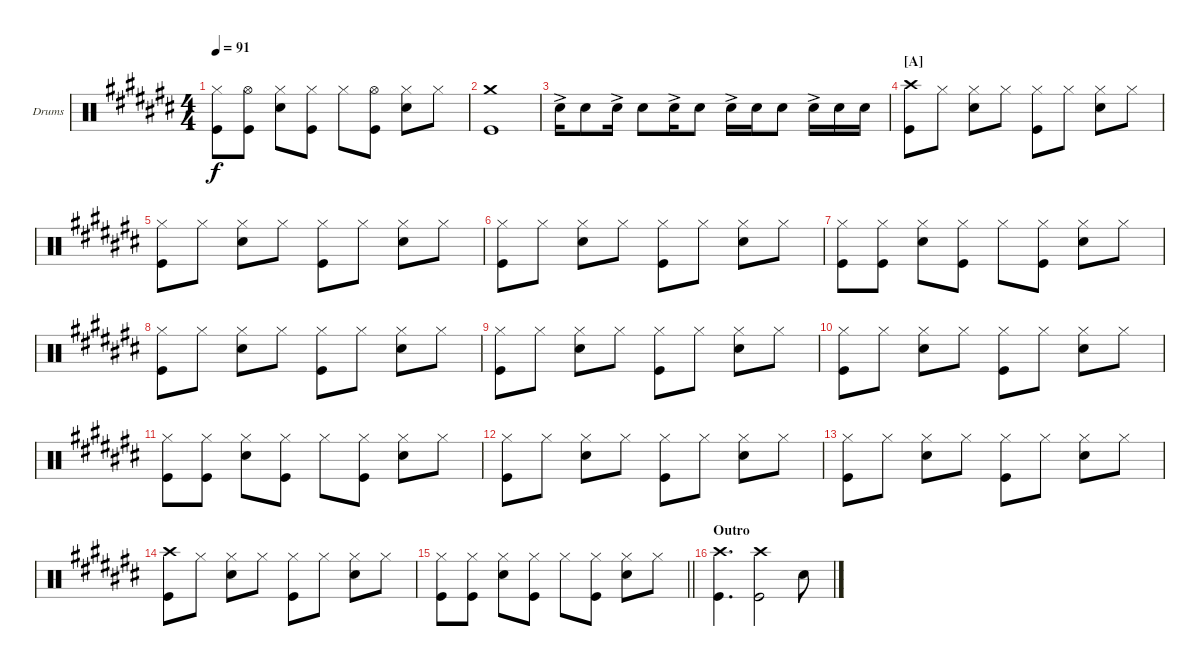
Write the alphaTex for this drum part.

\bracketExtendMode groupsimilarinstruments
\firstSystemTrackNameOrientation horizontal
\otherSystemsTrackNameOrientation horizontal
\track ("Fabrizio Moretti" "Drums") {instrument percussion}
\staff {score}
\articulation defaults
\ts (4 4)
\tempo 91
\clef neutral
\ks c#
("Hi-Hat (closed)" "Kick (hit)").8{dy f} ("Hi-Hat (open)" "Kick (hit)").8 ("Snare (hit) 2" "Hi-Hat (closed)").8 ("Hi-Hat (closed)" "Kick (hit)").8 "Hi-Hat (closed)".8 ("Hi-Hat (open)" "Kick (hit)").8 ("Snare (hit) 2" "Hi-Hat (closed)").8 "Hi-Hat (closed)".8 |
("Crash medium (hit)" "Kick (hit)").1 |
"Snare (hit) 2"{ac}.16 "Snare (hit) 2".8 "Snare (hit) 2"{ac}.16 "Snare (hit) 2".8 "Snare (hit) 2"{ac}.16 "Snare (hit) 2".8 "Snare (hit) 2"{ac}.16 "Snare (hit) 2".16 "Snare (hit) 2".8 "Snare (hit) 2"{ac}.16 "Snare (hit) 2".16 "Snare (hit) 2".16 |
\section ("A" "")
("Crash high (hit)" "Kick (hit)").8 "Hi-Hat (closed)".8 ("Hi-Hat (closed)" "Snare (hit) 2").8 "Hi-Hat (closed)".8 ("Hi-Hat (closed)" "Kick (hit)").8 "Hi-Hat (closed)".8 ("Hi-Hat (closed)" "Snare (hit) 2").8 "Hi-Hat (closed)".8 |
("Hi-Hat (closed)" "Kick (hit)").8 "Hi-Hat (closed)".8 ("Hi-Hat (closed)" "Snare (hit) 2").8 "Hi-Hat (closed)".8 ("Hi-Hat (closed)" "Kick (hit)").8 "Hi-Hat (closed)".8 ("Hi-Hat (closed)" "Snare (hit) 2").8 "Hi-Hat (closed)".8 |
("Hi-Hat (closed)" "Kick (hit)").8 "Hi-Hat (closed)".8 ("Hi-Hat (closed)" "Snare (hit) 2").8 "Hi-Hat (closed)".8 ("Hi-Hat (closed)" "Kick (hit)").8 "Hi-Hat (closed)".8 ("Hi-Hat (closed)" "Snare (hit) 2").8 "Hi-Hat (closed)".8 |
("Hi-Hat (closed)" "Kick (hit)").8 ("Hi-Hat (closed)" "Kick (hit)").8 ("Hi-Hat (closed)" "Snare (hit) 2").8 ("Hi-Hat (closed)" "Kick (hit)").8 "Hi-Hat (closed)".8 ("Hi-Hat (closed)" "Kick (hit)").8 ("Hi-Hat (closed)" "Snare (hit) 2").8 "Hi-Hat (closed)".8 |
("Hi-Hat (closed)" "Kick (hit)").8 "Hi-Hat (closed)".8 ("Hi-Hat (closed)" "Snare (hit) 2").8 "Hi-Hat (closed)".8 ("Hi-Hat (closed)" "Kick (hit)").8 "Hi-Hat (closed)".8 ("Hi-Hat (closed)" "Snare (hit) 2").8 "Hi-Hat (closed)".8 |
("Hi-Hat (closed)" "Kick (hit)").8 "Hi-Hat (closed)".8 ("Hi-Hat (closed)" "Snare (hit) 2").8 "Hi-Hat (closed)".8 ("Hi-Hat (closed)" "Kick (hit)").8 "Hi-Hat (closed)".8 ("Hi-Hat (closed)" "Snare (hit) 2").8 "Hi-Hat (closed)".8 |
("Hi-Hat (closed)" "Kick (hit)").8 "Hi-Hat (closed)".8 ("Hi-Hat (closed)" "Snare (hit) 2").8 "Hi-Hat (closed)".8 ("Hi-Hat (closed)" "Kick (hit)").8 "Hi-Hat (closed)".8 ("Hi-Hat (closed)" "Snare (hit) 2").8 "Hi-Hat (closed)".8 |
("Hi-Hat (closed)" "Kick (hit)").8 ("Hi-Hat (closed)" "Kick (hit)").8 ("Hi-Hat (closed)" "Snare (hit) 2").8 ("Hi-Hat (closed)" "Kick (hit)").8 "Hi-Hat (closed)".8 ("Hi-Hat (closed)" "Kick (hit)").8 ("Hi-Hat (closed)" "Snare (hit) 2").8 "Hi-Hat (closed)".8 |
("Kick (hit)" "Hi-Hat (closed)").8 "Hi-Hat (closed)".8 ("Hi-Hat (closed)" "Snare (hit) 2").8 "Hi-Hat (closed)".8 ("Hi-Hat (closed)" "Kick (hit)").8 "Hi-Hat (closed)".8 ("Hi-Hat (closed)" "Snare (hit) 2").8 "Hi-Hat (closed)".8 |
("Hi-Hat (closed)" "Kick (hit)").8 "Hi-Hat (closed)".8 ("Hi-Hat (closed)" "Snare (hit) 2").8 "Hi-Hat (closed)".8 ("Hi-Hat (closed)" "Kick (hit)").8 "Hi-Hat (closed)".8 ("Hi-Hat (closed)" "Snare (hit) 2").8 "Hi-Hat (closed)".8 |
("Crash high (hit)" "Kick (hit)").8 "Hi-Hat (closed)".8 ("Hi-Hat (closed)" "Snare (hit) 2").8 "Hi-Hat (closed)".8 ("Hi-Hat (closed)" "Kick (hit)").8 "Hi-Hat (closed)".8 ("Hi-Hat (closed)" "Snare (hit) 2").8 "Hi-Hat (closed)".8 |
\barLineRight lightlight
("Hi-Hat (closed)" "Kick (hit)").8 ("Hi-Hat (closed)" "Kick (hit)").8 ("Hi-Hat (closed)" "Snare (hit) 2").8 ("Hi-Hat (closed)" "Kick (hit)").8 "Hi-Hat (closed)".8 ("Hi-Hat (closed)" "Kick (hit)").8 ("Hi-Hat (closed)" "Snare (hit) 2").8 "Hi-Hat (closed)".8 |
\section ("" "Outro")
("Crash high (hit)" "Kick (hit)").4{d} ("Crash high (hit)" "Kick (hit)").2 "Snare (hit) 2".8
